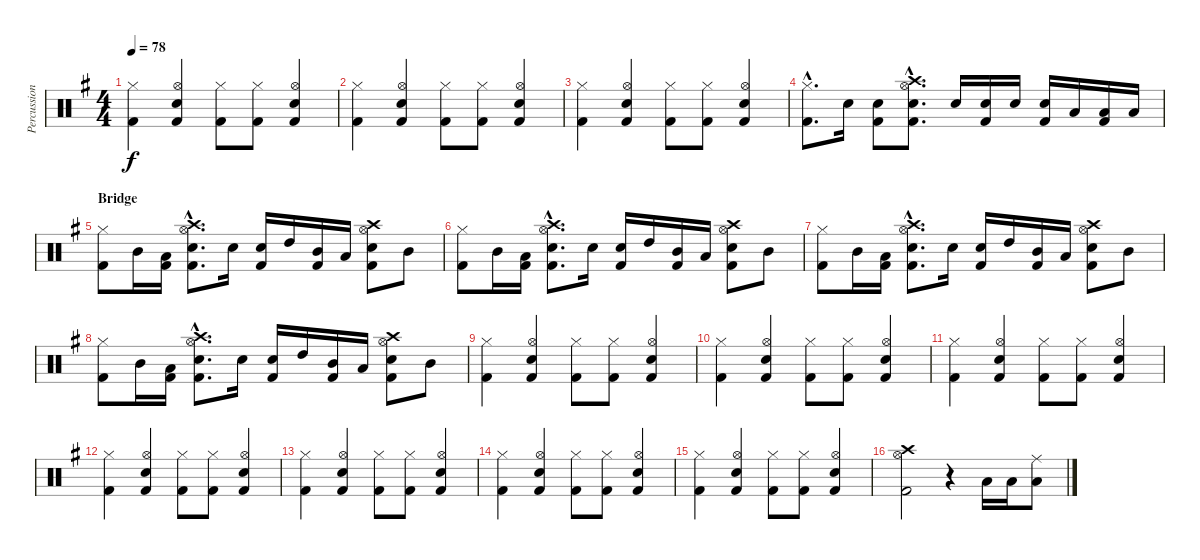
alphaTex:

\track ("Percussion" "Percussion") {instrument percussion}
\staff {score}
\articulation defaults
\ts (4 4)
\tempo 78
\clef neutral
\ks g
("Hi-Hat (closed)" "Kick (hit) 2").4{dy f} ("Hi-Hat (open)" "Snare (hit) 2" "Kick (hit) 2").4 ("Hi-Hat (closed)" "Kick (hit) 2").8 ("Hi-Hat (closed)" "Kick (hit) 2").8 ("Hi-Hat (open)" "Snare (hit) 2" "Kick (hit) 2").4 |
("Hi-Hat (closed)" "Kick (hit) 2").4 ("Hi-Hat (open)" "Snare (hit) 2" "Kick (hit) 2").4 ("Hi-Hat (closed)" "Kick (hit) 2").8 ("Hi-Hat (closed)" "Kick (hit) 2").8 ("Hi-Hat (open)" "Snare (hit) 2" "Kick (hit) 2").4 |
("Hi-Hat (closed)" "Kick (hit) 2").4 ("Hi-Hat (open)" "Snare (hit) 2" "Kick (hit) 2").4 ("Hi-Hat (closed)" "Kick (hit) 2").8 ("Hi-Hat (closed)" "Kick (hit) 2").8 ("Hi-Hat (open)" "Snare (hit) 2" "Kick (hit) 2").4 |
("Hi-Hat (closed)"{hac} "Kick (hit) 2"{hac}).8{d} "Snare (hit) 2".16 ("Snare (hit) 2" "Kick (hit) 2").8 ("Crash high (hit)"{hac} "Hi-Hat (open)"{hac} "Snare (hit) 2"{hac} "Kick (hit) 2"{hac}).8{d} "Snare (hit) 2".16 ("Snare (hit) 2" "Kick (hit) 2").16 "Snare (hit) 2".16 ("Snare (hit) 2" "Kick (hit) 2").16 "Low Tom (hit)".16 ("Low Tom (hit)" "Kick (hit) 2").16 "Low Tom (hit)".16 |
\section ("" "Bridge")
("Hi-Hat (closed)" "Kick (hit) 2").8 "Mid Tom (hit)".16 ("Low Tom (hit)" "Kick (hit) 2").16 ("Crash high (hit)"{hac} "Hi-Hat (open)"{hac} "Snare (hit) 2"{hac} "Kick (hit) 2"{hac}).8{d} "Snare (hit) 2".16 ("Snare (hit) 2" "Kick (hit) 2").16 "High Tom (hit)".16 ("Mid Tom (hit)" "Kick (hit) 2").16 "Low Tom (hit)".16 ("Crash high (hit)" "Hi-Hat (open)" "Snare (hit) 2" "Kick (hit) 2").8 "Mid Tom (hit)".8 |
("Hi-Hat (closed)" "Kick (hit) 2").8 "Mid Tom (hit)".16 ("Low Tom (hit)" "Kick (hit) 2").16 ("Crash high (hit)"{hac} "Hi-Hat (open)"{hac} "Snare (hit) 2"{hac} "Kick (hit) 2"{hac}).8{d} "Snare (hit) 2".16 ("Snare (hit) 2" "Kick (hit) 2").16 "High Tom (hit)".16 ("Mid Tom (hit)" "Kick (hit) 2").16 "Low Tom (hit)".16 ("Crash high (hit)" "Hi-Hat (open)" "Snare (hit) 2" "Kick (hit) 2").8 "Mid Tom (hit)".8 |
("Hi-Hat (closed)" "Kick (hit) 2").8 "Mid Tom (hit)".16 ("Low Tom (hit)" "Kick (hit) 2").16 ("Crash high (hit)"{hac} "Hi-Hat (open)"{hac} "Snare (hit) 2"{hac} "Kick (hit) 2"{hac}).8{d} "Snare (hit) 2".16 ("Snare (hit) 2" "Kick (hit) 2").16 "High Tom (hit)".16 ("Mid Tom (hit)" "Kick (hit) 2").16 "Low Tom (hit)".16 ("Crash high (hit)" "Hi-Hat (open)" "Snare (hit) 2" "Kick (hit) 2").8 "Mid Tom (hit)".8 |
("Hi-Hat (closed)" "Kick (hit) 2").8 "Mid Tom (hit)".16 ("Low Tom (hit)" "Kick (hit) 2").16 ("Crash high (hit)"{hac} "Hi-Hat (open)"{hac} "Snare (hit) 2"{hac} "Kick (hit) 2"{hac}).8{d} "Snare (hit) 2".16 ("Snare (hit) 2" "Kick (hit) 2").16 "High Tom (hit)".16 ("Mid Tom (hit)" "Kick (hit) 2").16 "Low Tom (hit)".16 ("Crash high (hit)" "Hi-Hat (open)" "Snare (hit) 2" "Kick (hit) 2").8 "Mid Tom (hit)".8 |
("Hi-Hat (closed)" "Kick (hit) 2").4 ("Hi-Hat (open)" "Snare (hit) 2" "Kick (hit) 2").4 ("Hi-Hat (closed)" "Kick (hit) 2").8 ("Hi-Hat (closed)" "Kick (hit) 2").8 ("Hi-Hat (open)" "Snare (hit) 2" "Kick (hit) 2").4 |
("Hi-Hat (closed)" "Kick (hit) 2").4 ("Hi-Hat (open)" "Snare (hit) 2" "Kick (hit) 2").4 ("Hi-Hat (closed)" "Kick (hit) 2").8 ("Hi-Hat (closed)" "Kick (hit) 2").8 ("Hi-Hat (open)" "Snare (hit) 2" "Kick (hit) 2").4 |
("Hi-Hat (closed)" "Kick (hit) 2").4 ("Hi-Hat (open)" "Snare (hit) 2" "Kick (hit) 2").4 ("Hi-Hat (closed)" "Kick (hit) 2").8 ("Hi-Hat (closed)" "Kick (hit) 2").8 ("Hi-Hat (open)" "Snare (hit) 2" "Kick (hit) 2").4 |
("Hi-Hat (closed)" "Kick (hit) 2").4 ("Hi-Hat (open)" "Snare (hit) 2" "Kick (hit) 2").4 ("Hi-Hat (closed)" "Kick (hit) 2").8 ("Hi-Hat (closed)" "Kick (hit) 2").8 ("Hi-Hat (open)" "Snare (hit) 2" "Kick (hit) 2").4 |
("Hi-Hat (closed)" "Kick (hit) 2").4 ("Hi-Hat (open)" "Snare (hit) 2" "Kick (hit) 2").4 ("Hi-Hat (closed)" "Kick (hit) 2").8 ("Hi-Hat (closed)" "Kick (hit) 2").8 ("Hi-Hat (open)" "Snare (hit) 2" "Kick (hit) 2").4 |
("Hi-Hat (closed)" "Kick (hit) 2").4 ("Hi-Hat (open)" "Snare (hit) 2" "Kick (hit) 2").4 ("Hi-Hat (closed)" "Kick (hit) 2").8 ("Hi-Hat (closed)" "Kick (hit) 2").8 ("Hi-Hat (open)" "Snare (hit) 2" "Kick (hit) 2").4 |
("Hi-Hat (closed)" "Kick (hit) 2").4 ("Hi-Hat (open)" "Snare (hit) 2" "Kick (hit) 2").4 ("Hi-Hat (closed)" "Kick (hit) 2").8 ("Hi-Hat (closed)" "Kick (hit) 2").8 ("Hi-Hat (open)" "Snare (hit) 2" "Kick (hit) 2").4 |
("Hi-Hat (open)" "Crash high (hit)" "Kick (hit) 2").2 r.4 "Low Floor Tom (hit)".16 "Low Tom (hit)".16 ("Ride (middle)" "Low Floor Tom (hit)").8
